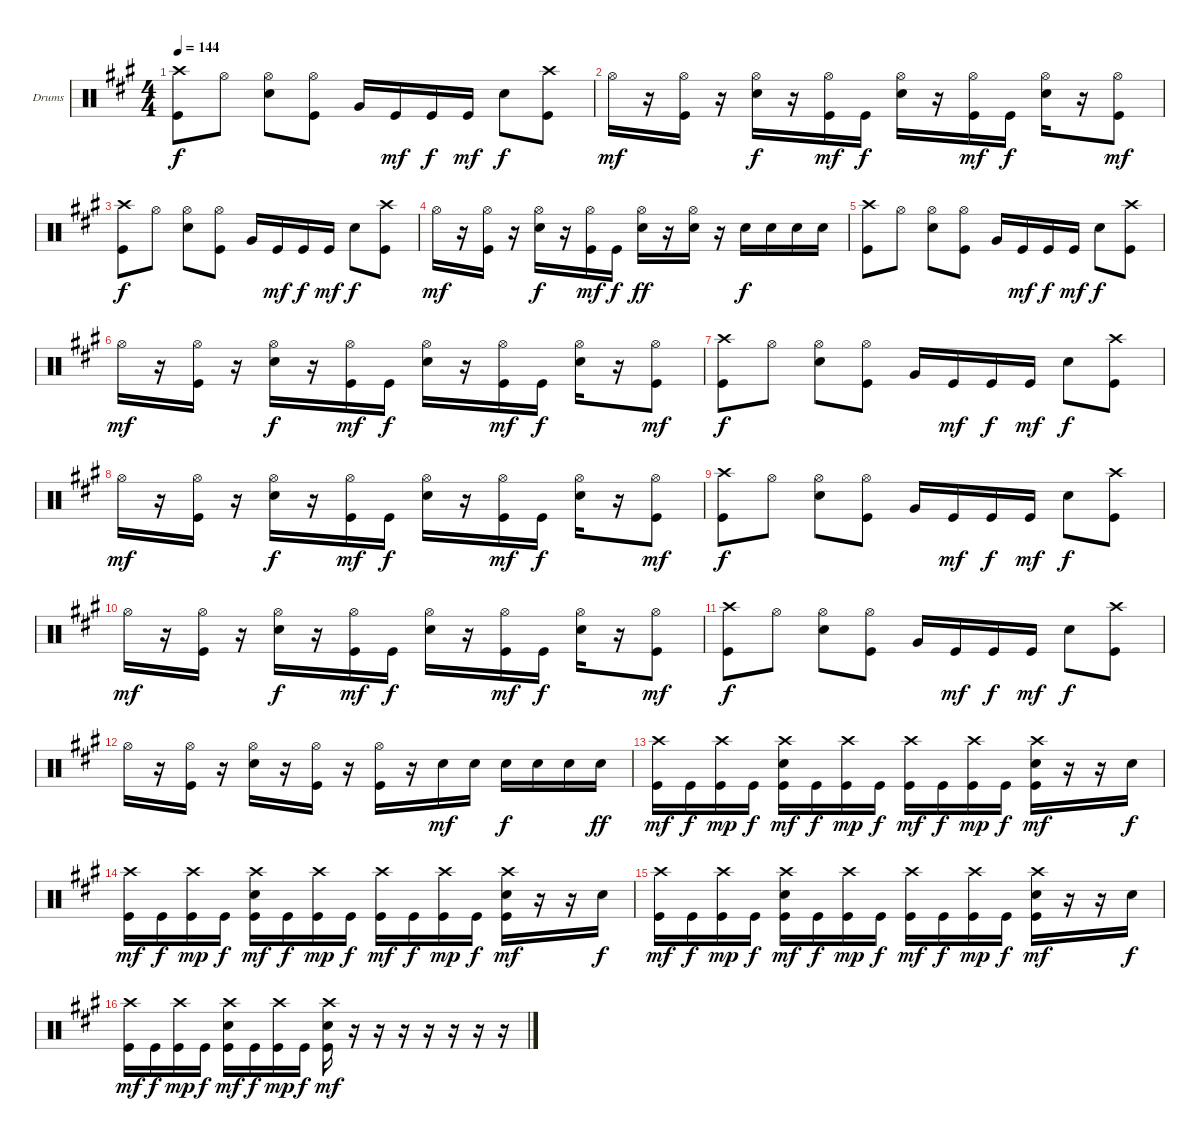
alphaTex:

\defaultSystemsLayout 4
\bracketExtendMode groupsimilarinstruments
\firstSystemTrackNameOrientation horizontal
\otherSystemsTrackNameOrientation horizontal
\track ("Drumkit" "Drums") {instrument percussion}
\staff {score}
\articulation defaults
\ts (4 4)
\tempo 144
\clef neutral
\scale
1.05801
\ks a
("Crash high (hit)" "Kick (hit)").8{dy f} "Hi-Hat (open)".8 ("Hi-Hat (open)" "Snare (hit) 2").8 ("Hi-Hat (open)" "Kick (hit)").8 "Very Low Tom (hit)".16 "Kick (hit)".16{dy mf} "Kick (hit)".16{dy f} "Kick (hit)".16{dy mf} "Snare (hit) 2".8{dy f} ("Crash high (hit)" "Kick (hit)").8 |
\scale
0.941992 "Hi-Hat (open)".16{dy mf} r.16 ("Hi-Hat (open)" "Kick (hit)").16 r.16 ("Hi-Hat (open)" "Snare (hit) 2").16{dy f} r.16 ("Hi-Hat (open)" "Kick (hit)").16{dy mf} "Kick (hit)".16{dy f} ("Hi-Hat (open)" "Snare (hit) 2").16 r.16 ("Hi-Hat (open)" "Kick (hit)").16{dy mf} "Kick (hit)".16{dy f} ("Hi-Hat (open)" "Snare (hit) 2").16 r.16 ("Hi-Hat (open)" "Kick (hit)").8{dy mf} |
\scale
1.05801 ("Crash high (hit)" "Kick (hit)").8{dy f} "Hi-Hat (open)".8 ("Hi-Hat (open)" "Snare (hit) 2").8 ("Hi-Hat (open)" "Kick (hit)").8 "Very Low Tom (hit)".16 "Kick (hit)".16{dy mf} "Kick (hit)".16{dy f} "Kick (hit)".16{dy mf} "Snare (hit) 2".8{dy f} ("Crash high (hit)" "Kick (hit)").8 |
\scale
0.941992 "Hi-Hat (open)".16{dy mf} r.16 ("Hi-Hat (open)" "Kick (hit)").16 r.16 ("Hi-Hat (open)" "Snare (hit) 2").16{dy f} r.16 ("Hi-Hat (open)" "Kick (hit)").16{dy mf} "Kick (hit)".16{dy f} ("Hi-Hat (open)" "Snare (hit) 2").16{dy ff} r.16 ("Hi-Hat (open)" "Snare (hit) 2").16 r.16 "Snare (hit) 2".16{dy f} "Snare (hit) 2".16 "Snare (hit) 2".16 "Snare (hit) 2".16 |
\scale
1.05801 ("Crash high (hit)" "Kick (hit)").8 "Hi-Hat (open)".8 ("Hi-Hat (open)" "Snare (hit) 2").8 ("Hi-Hat (open)" "Kick (hit)").8 "Very Low Tom (hit)".16 "Kick (hit)".16{dy mf} "Kick (hit)".16{dy f} "Kick (hit)".16{dy mf} "Snare (hit) 2".8{dy f} ("Crash high (hit)" "Kick (hit)").8 |
\scale
0.941992 "Hi-Hat (open)".16{dy mf} r.16 ("Hi-Hat (open)" "Kick (hit)").16 r.16 ("Hi-Hat (open)" "Snare (hit) 2").16{dy f} r.16 ("Hi-Hat (open)" "Kick (hit)").16{dy mf} "Kick (hit)".16{dy f} ("Hi-Hat (open)" "Snare (hit) 2").16 r.16 ("Hi-Hat (open)" "Kick (hit)").16{dy mf} "Kick (hit)".16{dy f} ("Hi-Hat (open)" "Snare (hit) 2").16 r.16 ("Hi-Hat (open)" "Kick (hit)").8{dy mf} |
\scale
1.05801 ("Crash high (hit)" "Kick (hit)").8{dy f} "Hi-Hat (open)".8 ("Hi-Hat (open)" "Snare (hit) 2").8 ("Hi-Hat (open)" "Kick (hit)").8 "Very Low Tom (hit)".16 "Kick (hit)".16{dy mf} "Kick (hit)".16{dy f} "Kick (hit)".16{dy mf} "Snare (hit) 2".8{dy f} ("Crash high (hit)" "Kick (hit)").8 |
\scale
0.941992 "Hi-Hat (open)".16{dy mf} r.16 ("Hi-Hat (open)" "Kick (hit)").16 r.16 ("Hi-Hat (open)" "Snare (hit) 2").16{dy f} r.16 ("Hi-Hat (open)" "Kick (hit)").16{dy mf} "Kick (hit)".16{dy f} ("Hi-Hat (open)" "Snare (hit) 2").16 r.16 ("Hi-Hat (open)" "Kick (hit)").16{dy mf} "Kick (hit)".16{dy f} ("Hi-Hat (open)" "Snare (hit) 2").16 r.16 ("Hi-Hat (open)" "Kick (hit)").8{dy mf} |
\scale
1.05801 ("Crash high (hit)" "Kick (hit)").8{dy f} "Hi-Hat (open)".8 ("Hi-Hat (open)" "Snare (hit) 2").8 ("Hi-Hat (open)" "Kick (hit)").8 "Very Low Tom (hit)".16 "Kick (hit)".16{dy mf} "Kick (hit)".16{dy f} "Kick (hit)".16{dy mf} "Snare (hit) 2".8{dy f} ("Crash high (hit)" "Kick (hit)").8 |
\scale
0.941992 "Hi-Hat (open)".16{dy mf} r.16 ("Hi-Hat (open)" "Kick (hit)").16 r.16 ("Hi-Hat (open)" "Snare (hit) 2").16{dy f} r.16 ("Hi-Hat (open)" "Kick (hit)").16{dy mf} "Kick (hit)".16{dy f} ("Hi-Hat (open)" "Snare (hit) 2").16 r.16 ("Hi-Hat (open)" "Kick (hit)").16{dy mf} "Kick (hit)".16{dy f} ("Hi-Hat (open)" "Snare (hit) 2").16 r.16 ("Hi-Hat (open)" "Kick (hit)").8{dy mf} |
\scale
1.05801 ("Crash high (hit)" "Kick (hit)").8{dy f} "Hi-Hat (open)".8 ("Hi-Hat (open)" "Snare (hit) 2").8 ("Hi-Hat (open)" "Kick (hit)").8 "Very Low Tom (hit)".16 "Kick (hit)".16{dy mf} "Kick (hit)".16{dy f} "Kick (hit)".16{dy mf} "Snare (hit) 2".8{dy f} ("Crash high (hit)" "Kick (hit)").8 |
\scale
0.941992 "Hi-Hat (open)".16 r.16 ("Hi-Hat (open)" "Kick (hit)").16 r.16 ("Hi-Hat (open)" "Snare (hit) 2").16 r.16 ("Hi-Hat (open)" "Kick (hit)").16 r.16 ("Hi-Hat (open)" "Kick (hit)").16 r.16 "Snare (hit) 2".16{dy mf} "Snare (hit) 2".16 "Snare (hit) 2".16{dy f} "Snare (hit) 2".16 "Snare (hit) 2".16 "Snare (hit) 2".16{dy ff} |
\scale
1.05801 ("Crash high (hit)" "Kick (hit)").16{dy mf} "Kick (hit)".16{dy f} ("Crash high (hit)" "Kick (hit)").16{dy mp} "Kick (hit)".16{dy f} ("Crash high (hit)" "Snare (hit) 2" "Kick (hit)").16{dy mf} "Kick (hit)".16{dy f} ("Crash high (hit)" "Kick (hit)").16{dy mp} "Kick (hit)".16{dy f} ("Crash high (hit)" "Kick (hit)").16{dy mf} "Kick (hit)".16{dy f} ("Crash high (hit)" "Kick (hit)").16{dy mp} "Kick (hit)".16{dy f} ("Crash high (hit)" "Snare (hit) 2" "Kick (hit)").16{dy mf} r.16 r.16 "Snare (hit) 2".16{dy f} |
\scale
0.941992 ("Crash high (hit)" "Kick (hit)").16{dy mf} "Kick (hit)".16{dy f} ("Crash high (hit)" "Kick (hit)").16{dy mp} "Kick (hit)".16{dy f} ("Crash high (hit)" "Snare (hit) 2" "Kick (hit)").16{dy mf} "Kick (hit)".16{dy f} ("Crash high (hit)" "Kick (hit)").16{dy mp} "Kick (hit)".16{dy f} ("Crash high (hit)" "Kick (hit)").16{dy mf} "Kick (hit)".16{dy f} ("Crash high (hit)" "Kick (hit)").16{dy mp} "Kick (hit)".16{dy f} ("Crash high (hit)" "Snare (hit) 2" "Kick (hit)").16{dy mf} r.16 r.16 "Snare (hit) 2".16{dy f} |
\scale
1.05801 ("Crash high (hit)" "Kick (hit)").16{dy mf} "Kick (hit)".16{dy f} ("Crash high (hit)" "Kick (hit)").16{dy mp} "Kick (hit)".16{dy f} ("Crash high (hit)" "Snare (hit) 2" "Kick (hit)").16{dy mf} "Kick (hit)".16{dy f} ("Crash high (hit)" "Kick (hit)").16{dy mp} "Kick (hit)".16{dy f} ("Crash high (hit)" "Kick (hit)").16{dy mf} "Kick (hit)".16{dy f} ("Crash high (hit)" "Kick (hit)").16{dy mp} "Kick (hit)".16{dy f} ("Crash high (hit)" "Snare (hit) 2" "Kick (hit)").16{dy mf} r.16 r.16 "Snare (hit) 2".16{dy f} |
\scale
0.941992 ("Crash high (hit)" "Kick (hit)").16{dy mf} "Kick (hit)".16{dy f} ("Crash high (hit)" "Kick (hit)").16{dy mp} "Kick (hit)".16{dy f} ("Crash high (hit)" "Snare (hit) 2" "Kick (hit)").16{dy mf} "Kick (hit)".16{dy f} ("Crash high (hit)" "Kick (hit)").16{dy mp} "Kick (hit)".16{dy f} ("Crash high (hit)" "Snare (hit) 2" "Kick (hit)").16{dy mf} r.16 r.16 r.16 r.16 r.16 r.16 r.16
